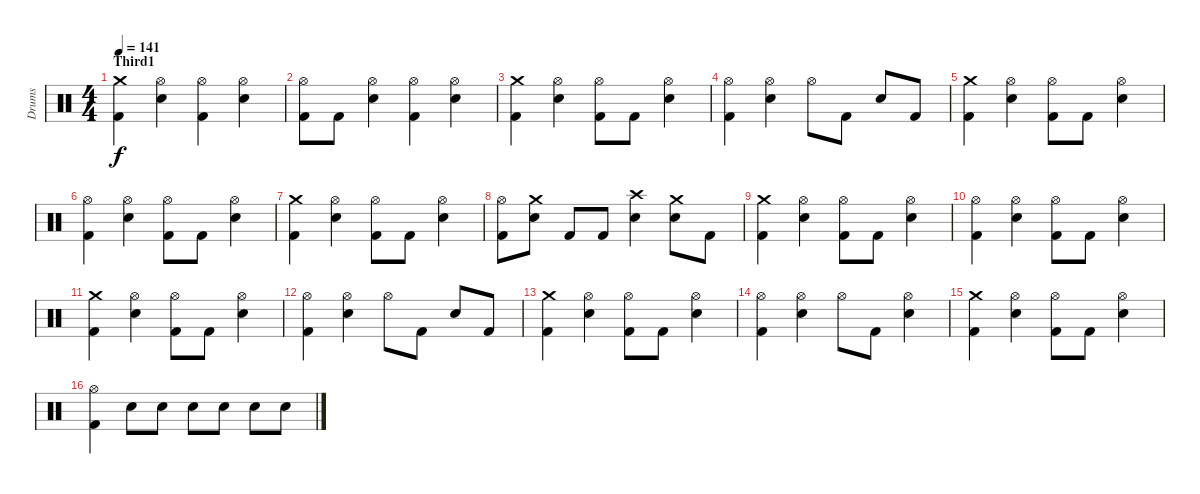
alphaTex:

\track ("Drums" "Drums") {instrument percussion}
\staff {score}
\articulation defaults
\ts (4 4)
\section ("" "Third1")
\tempo 141
\clef neutral
\ks c
("Crash medium (hit)" "Kick (hit) 2").4{dy f} ("Hi-Hat (open)" "Electric Snare (hit)").4 ("Hi-Hat (open)" "Kick (hit) 2").4 ("Hi-Hat (open)" "Electric Snare (hit)").4 |
("Hi-Hat (open)" "Kick (hit) 2").8 "Kick (hit) 2".8 ("Hi-Hat (open)" "Electric Snare (hit)").4 ("Hi-Hat (open)" "Kick (hit) 2").4 ("Hi-Hat (open)" "Electric Snare (hit)").4 |
("Crash medium (hit)" "Kick (hit) 2").4 ("Hi-Hat (open)" "Electric Snare (hit)").4 ("Hi-Hat (open)" "Kick (hit) 2").8 "Kick (hit) 2".8 ("Hi-Hat (open)" "Electric Snare (hit)").4 |
("Hi-Hat (open)" "Kick (hit) 2").4 ("Hi-Hat (open)" "Electric Snare (hit)").4 "Hi-Hat (open)".8 "Kick (hit) 2".8 "Electric Snare (hit)".8 "Kick (hit) 2".8 |
("Crash medium (hit)" "Kick (hit) 2").4 ("Hi-Hat (open)" "Electric Snare (hit)").4 ("Hi-Hat (open)" "Kick (hit) 2").8 "Kick (hit) 2".8 ("Hi-Hat (open)" "Electric Snare (hit)").4 |
("Hi-Hat (open)" "Kick (hit) 2").4 ("Hi-Hat (open)" "Electric Snare (hit)").4 ("Hi-Hat (open)" "Kick (hit) 2").8 "Kick (hit) 2".8 ("Hi-Hat (open)" "Electric Snare (hit)").4 |
("Crash medium (hit)" "Kick (hit) 2").4 ("Hi-Hat (open)" "Electric Snare (hit)").4 ("Hi-Hat (open)" "Kick (hit) 2").8 "Kick (hit) 2".8 ("Hi-Hat (open)" "Electric Snare (hit)").4 |
("Hi-Hat (open)" "Kick (hit) 2").8 ("Crash medium (hit)" "Electric Snare (hit)").8 "Kick (hit) 2".8 "Kick (hit) 2".8 ("Crash high (hit)" "Electric Snare (hit)").4 ("Crash medium (hit)" "Electric Snare (hit)").8 "Kick (hit) 2".8 |
("Crash medium (hit)" "Kick (hit) 2").4 ("Hi-Hat (open)" "Electric Snare (hit)").4 ("Hi-Hat (open)" "Kick (hit) 2").8 "Kick (hit) 2".8 ("Hi-Hat (open)" "Electric Snare (hit)").4 |
("Hi-Hat (open)" "Kick (hit) 2").4 ("Hi-Hat (open)" "Electric Snare (hit)").4 ("Hi-Hat (open)" "Kick (hit) 2").8 "Kick (hit) 2".8 ("Hi-Hat (open)" "Electric Snare (hit)").4 |
("Crash medium (hit)" "Kick (hit) 2").4 ("Hi-Hat (open)" "Electric Snare (hit)").4 ("Hi-Hat (open)" "Kick (hit) 2").8 "Kick (hit) 2".8 ("Hi-Hat (open)" "Electric Snare (hit)").4 |
("Hi-Hat (open)" "Kick (hit) 2").4 ("Hi-Hat (open)" "Electric Snare (hit)").4 "Hi-Hat (open)".8 "Kick (hit) 2".8 "Electric Snare (hit)".8 "Kick (hit) 2".8 |
("Crash medium (hit)" "Kick (hit) 2").4 ("Hi-Hat (open)" "Electric Snare (hit)").4 ("Hi-Hat (open)" "Kick (hit) 2").8 "Kick (hit) 2".8 ("Hi-Hat (open)" "Electric Snare (hit)").4 |
("Hi-Hat (open)" "Kick (hit) 2").4 ("Hi-Hat (open)" "Electric Snare (hit)").4 "Hi-Hat (open)".8 "Kick (hit) 2".8 ("Hi-Hat (open)" "Electric Snare (hit)").4 |
("Crash medium (hit)" "Kick (hit) 2").4 ("Hi-Hat (open)" "Electric Snare (hit)").4 ("Hi-Hat (open)" "Kick (hit) 2").8 "Kick (hit) 2".8 ("Hi-Hat (open)" "Electric Snare (hit)").4 |
("Hi-Hat (open)" "Kick (hit) 2").4 "Electric Snare (hit)".8{volume 10} "Electric Snare (hit)".8{volume 11} "Electric Snare (hit)".8{volume 12} "Electric Snare (hit)".8{volume 13} "Electric Snare (hit)".8{volume 14} "Electric Snare (hit)".8{volume 15}
